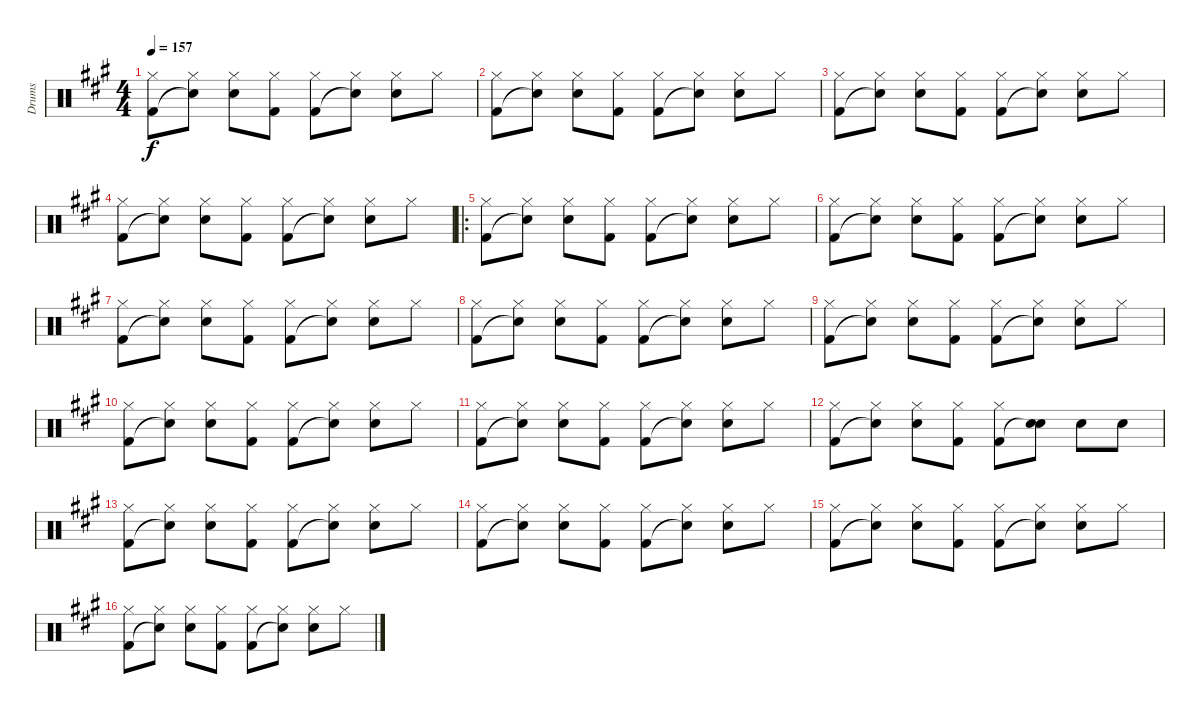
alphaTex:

\track ("Drums" "Drums") {instrument percussion}
\staff {score}
\articulation defaults
\ts (4 4)
\tempo 157
\clef neutral
\ks a
("Hi-Hat (closed)" "Kick (hit) 2").8{dy f} ("Hi-Hat (closed)" "Snare (hit)"{t}).8 ("Hi-Hat (closed)" "Snare (hit) 2").8 ("Hi-Hat (closed)" "Kick (hit) 2").8 ("Hi-Hat (closed)" "Kick (hit) 2").8 ("Hi-Hat (closed)" "Snare (hit)"{t}).8 ("Hi-Hat (closed)" "Snare (hit) 2").8 "Hi-Hat (closed)".8 |
("Hi-Hat (closed)" "Kick (hit) 2").8 ("Hi-Hat (closed)" "Snare (hit)"{t}).8 ("Hi-Hat (closed)" "Snare (hit) 2").8 ("Hi-Hat (closed)" "Kick (hit) 2").8 ("Hi-Hat (closed)" "Kick (hit) 2").8 ("Hi-Hat (closed)" "Snare (hit)"{t}).8 ("Hi-Hat (closed)" "Snare (hit) 2").8 "Hi-Hat (closed)".8 |
("Hi-Hat (closed)" "Kick (hit) 2").8 ("Hi-Hat (closed)" "Snare (hit)"{t}).8 ("Hi-Hat (closed)" "Snare (hit) 2").8 ("Hi-Hat (closed)" "Kick (hit) 2").8 ("Hi-Hat (closed)" "Kick (hit) 2").8 ("Hi-Hat (closed)" "Snare (hit)"{t}).8 ("Hi-Hat (closed)" "Snare (hit) 2").8 "Hi-Hat (closed)".8 |
("Hi-Hat (closed)" "Kick (hit) 2").8 ("Hi-Hat (closed)" "Snare (hit)"{t}).8 ("Hi-Hat (closed)" "Snare (hit) 2").8 ("Hi-Hat (closed)" "Kick (hit) 2").8 ("Hi-Hat (closed)" "Kick (hit) 2").8 ("Hi-Hat (closed)" "Snare (hit)"{t}).8 ("Hi-Hat (closed)" "Snare (hit) 2").8 "Hi-Hat (closed)".8 |
\ro
("Hi-Hat (closed)" "Kick (hit) 2").8 ("Hi-Hat (closed)" "Snare (hit)"{t}).8 ("Hi-Hat (closed)" "Snare (hit) 2").8 ("Hi-Hat (closed)" "Kick (hit) 2").8 ("Hi-Hat (closed)" "Kick (hit) 2").8 ("Hi-Hat (closed)" "Snare (hit)"{t}).8 ("Hi-Hat (closed)" "Snare (hit) 2").8 "Hi-Hat (closed)".8 |
("Hi-Hat (closed)" "Kick (hit) 2").8 ("Hi-Hat (closed)" "Snare (hit)"{t}).8 ("Hi-Hat (closed)" "Snare (hit) 2").8 ("Hi-Hat (closed)" "Kick (hit) 2").8 ("Hi-Hat (closed)" "Kick (hit) 2").8 ("Hi-Hat (closed)" "Snare (hit)"{t}).8 ("Hi-Hat (closed)" "Snare (hit) 2").8 "Hi-Hat (closed)".8 |
("Hi-Hat (closed)" "Kick (hit) 2").8 ("Hi-Hat (closed)" "Snare (hit)"{t}).8 ("Hi-Hat (closed)" "Snare (hit) 2").8 ("Hi-Hat (closed)" "Kick (hit) 2").8 ("Hi-Hat (closed)" "Kick (hit) 2").8 ("Hi-Hat (closed)" "Snare (hit)"{t}).8 ("Hi-Hat (closed)" "Snare (hit) 2").8 "Hi-Hat (closed)".8 |
("Hi-Hat (closed)" "Kick (hit) 2").8 ("Hi-Hat (closed)" "Snare (hit)"{t}).8 ("Hi-Hat (closed)" "Snare (hit) 2").8 ("Hi-Hat (closed)" "Kick (hit) 2").8 ("Hi-Hat (closed)" "Kick (hit) 2").8 ("Hi-Hat (closed)" "Snare (hit)"{t}).8 ("Hi-Hat (closed)" "Snare (hit) 2").8 "Hi-Hat (closed)".8 |
("Hi-Hat (closed)" "Kick (hit) 2").8 ("Hi-Hat (closed)" "Snare (hit)"{t}).8 ("Hi-Hat (closed)" "Snare (hit) 2").8 ("Hi-Hat (closed)" "Kick (hit) 2").8 ("Hi-Hat (closed)" "Kick (hit) 2").8 ("Hi-Hat (closed)" "Snare (hit)"{t}).8 ("Hi-Hat (closed)" "Snare (hit) 2").8 "Hi-Hat (closed)".8 |
("Hi-Hat (closed)" "Kick (hit) 2").8 ("Hi-Hat (closed)" "Snare (hit)"{t}).8 ("Hi-Hat (closed)" "Snare (hit) 2").8 ("Hi-Hat (closed)" "Kick (hit) 2").8 ("Hi-Hat (closed)" "Kick (hit) 2").8 ("Hi-Hat (closed)" "Snare (hit)"{t}).8 ("Hi-Hat (closed)" "Snare (hit) 2").8 "Hi-Hat (closed)".8 |
("Hi-Hat (closed)" "Kick (hit) 2").8 ("Hi-Hat (closed)" "Snare (hit)"{t}).8 ("Hi-Hat (closed)" "Snare (hit) 2").8 ("Hi-Hat (closed)" "Kick (hit) 2").8 ("Hi-Hat (closed)" "Kick (hit) 2").8 ("Hi-Hat (closed)" "Snare (hit)"{t}).8 ("Hi-Hat (closed)" "Snare (hit) 2").8 "Hi-Hat (closed)".8 |
("Hi-Hat (closed)" "Kick (hit) 2").8 ("Hi-Hat (closed)" "Snare (hit)"{t}).8 ("Hi-Hat (closed)" "Snare (hit) 2").8 ("Hi-Hat (closed)" "Kick (hit) 2").8 ("Hi-Hat (closed)" "Kick (hit) 2").8 ("Snare (hit) 2" "Snare (hit)"{t}).8 "Snare (hit) 2".8 "Snare (hit) 2".8 |
("Hi-Hat (closed)" "Kick (hit) 2").8 ("Hi-Hat (closed)" "Snare (hit)"{t}).8 ("Hi-Hat (closed)" "Snare (hit) 2").8 ("Hi-Hat (closed)" "Kick (hit) 2").8 ("Hi-Hat (closed)" "Kick (hit) 2").8 ("Hi-Hat (closed)" "Snare (hit)"{t}).8 ("Hi-Hat (closed)" "Snare (hit) 2").8 "Hi-Hat (closed)".8 |
("Hi-Hat (closed)" "Kick (hit) 2").8 ("Hi-Hat (closed)" "Snare (hit)"{t}).8 ("Hi-Hat (closed)" "Snare (hit) 2").8 ("Hi-Hat (closed)" "Kick (hit) 2").8 ("Hi-Hat (closed)" "Kick (hit) 2").8 ("Hi-Hat (closed)" "Snare (hit)"{t}).8 ("Hi-Hat (closed)" "Snare (hit) 2").8 "Hi-Hat (closed)".8 |
("Hi-Hat (closed)" "Kick (hit) 2").8 ("Hi-Hat (closed)" "Snare (hit)"{t}).8 ("Hi-Hat (closed)" "Snare (hit) 2").8 ("Hi-Hat (closed)" "Kick (hit) 2").8 ("Hi-Hat (closed)" "Kick (hit) 2").8 ("Hi-Hat (closed)" "Snare (hit)"{t}).8 ("Hi-Hat (closed)" "Snare (hit) 2").8 "Hi-Hat (closed)".8 |
("Hi-Hat (closed)" "Kick (hit) 2").8 ("Hi-Hat (closed)" "Snare (hit)"{t}).8 ("Hi-Hat (closed)" "Snare (hit) 2").8 ("Hi-Hat (closed)" "Kick (hit) 2").8 ("Hi-Hat (closed)" "Kick (hit) 2").8 ("Hi-Hat (closed)" "Snare (hit)"{t}).8 ("Hi-Hat (closed)" "Snare (hit) 2").8 "Hi-Hat (closed)".8
